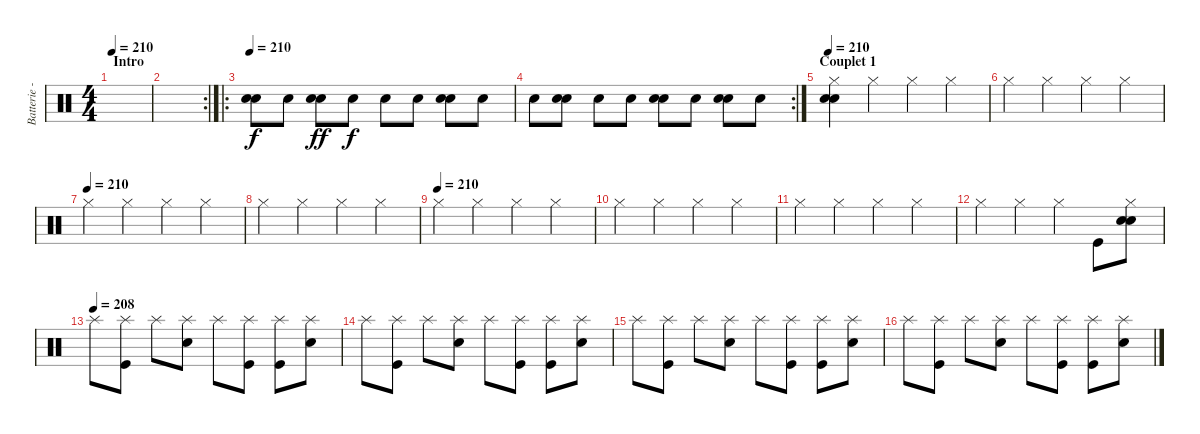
\track ("Batterie - Guillaume" "Batterie -") {instrument percussion}
\staff {score}
\articulation defaults
\ts (4 4)
\section ("" "Intro")
\tempo 210
\clef neutral
\ks c
|
\rc 2
|
\ro
\tempo 210
("Snare (hit) 2" "Hand Clap (hit)").8 "Hand Clap (hit)".8{dy f} ("Snare (hit) 2" "Hand Clap (hit)").8{dy ff} "Hand Clap (hit)".8{dy f} "Hand Clap (hit)".8 "Hand Clap (hit)".8 ("Snare (hit) 2" "Hand Clap (hit)").8 "Hand Clap (hit)".8 |
\rc 2 "Hand Clap (hit)".8
("Snare (hit) 2" "Hand Clap (hit)").8 "Hand Clap (hit)".8 "Hand Clap (hit)".8 ("Snare (hit) 2" "Hand Clap (hit)").8 "Hand Clap (hit)".8 ("Snare (hit) 2" "Hand Clap (hit)").8 "Hand Clap (hit)".8 |
\section ("" "Couplet 1 ")
\tempo 210
("Hi-Hat (closed)" "Snare (hit) 2" "Hand Clap (hit)").4 "Hi-Hat (closed)".4 "Hi-Hat (closed)".4 "Hi-Hat (closed)".4 |
"Hi-Hat (closed)".4 "Hi-Hat (closed)".4 "Hi-Hat (closed)".4 "Hi-Hat (closed)".4 |
\tempo (210)
"Hi-Hat (closed)".4 "Hi-Hat (closed)".4 "Hi-Hat (closed)".4 "Hi-Hat (closed)".4 |
"Hi-Hat (closed)".4 "Hi-Hat (closed)".4 "Hi-Hat (closed)".4 "Hi-Hat (closed)".4 |
\tempo (210)
"Hi-Hat (closed)".4 "Hi-Hat (closed)".4 "Hi-Hat (closed)".4 "Hi-Hat (closed)".4 |
"Hi-Hat (closed)".4 "Hi-Hat (closed)".4 "Hi-Hat (closed)".4 "Hi-Hat (closed)".4 |
"Hi-Hat (closed)".4 "Hi-Hat (closed)".4 "Hi-Hat (closed)".4 "Hi-Hat (closed)".4 |
"Hi-Hat (closed)".4 "Hi-Hat (closed)".4 "Hi-Hat (closed)".4 "Kick (hit)".8 ("Hi-Hat (closed)" "Snare (hit) 2" "Hand Clap (hit)").8 |
\tempo (208)
"Splash (hit)".8 ("Splash (hit)" "Kick (hit)").8 "Splash (hit)".8 ("Splash (hit)" "Snare (hit) 2").8 "Splash (hit)".8 ("Splash (hit)" "Kick (hit)").8 ("Splash (hit)" "Kick (hit)").8 ("Splash (hit)" "Snare (hit) 2").8 |
"Splash (hit)".8 ("Splash (hit)" "Kick (hit)").8 "Splash (hit)".8 ("Splash (hit)" "Snare (hit) 2").8 "Splash (hit)".8 ("Splash (hit)" "Kick (hit)").8 ("Splash (hit)" "Kick (hit)").8 ("Splash (hit)" "Snare (hit) 2").8 |
"Splash (hit)".8 ("Splash (hit)" "Kick (hit)").8 "Splash (hit)".8 ("Splash (hit)" "Snare (hit) 2").8 "Splash (hit)".8 ("Splash (hit)" "Kick (hit)").8 ("Splash (hit)" "Kick (hit)").8 ("Splash (hit)" "Snare (hit) 2").8 |
"Splash (hit)".8 ("Splash (hit)" "Kick (hit)").8 "Splash (hit)".8 ("Splash (hit)" "Snare (hit) 2").8 "Splash (hit)".8 ("Splash (hit)" "Kick (hit)").8 ("Splash (hit)" "Kick (hit)").8 ("Splash (hit)" "Snare (hit) 2").8
